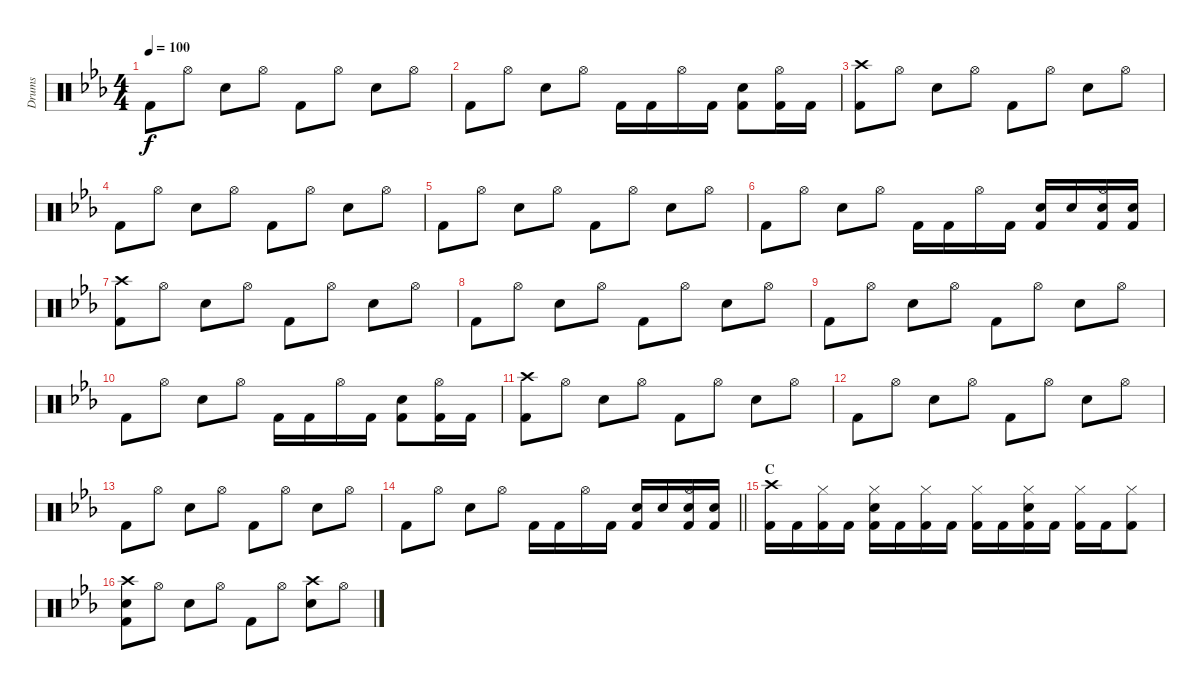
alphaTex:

\track ("Drums" "Drums") {instrument percussion}
\staff {score}
\articulation defaults
\ts (4 4)
\tempo 100
\clef neutral
\ks eb "Kick (hit) 2".8{dy f} "Hi-Hat (open)".8 "Snare (hit) 2".8 "Hi-Hat (open)".8 "Kick (hit) 2".8 "Hi-Hat (open)".8 "Snare (hit) 2".8 "Hi-Hat (open)".8
|
"Kick (hit) 2".8 "Hi-Hat (open)".8 "Snare (hit) 2".8 "Hi-Hat (open)".8 "Kick (hit) 2".16 "Kick (hit) 2".16 "Hi-Hat (open)".16 "Kick (hit) 2".16 ("Kick (hit) 2" "Snare (hit) 2").8 ("Kick (hit) 2" "Hi-Hat (open)").16 "Kick (hit) 2".16 |
("Kick (hit) 2" "Crash high (hit)").8 "Hi-Hat (open)".8 "Snare (hit) 2".8 "Hi-Hat (open)".8 "Kick (hit) 2".8 "Hi-Hat (open)".8 "Snare (hit) 2".8 "Hi-Hat (open)".8 |
"Kick (hit) 2".8 "Hi-Hat (open)".8 "Snare (hit) 2".8 "Hi-Hat (open)".8 "Kick (hit) 2".8 "Hi-Hat (open)".8 "Snare (hit) 2".8 "Hi-Hat (open)".8 |
"Kick (hit) 2".8 "Hi-Hat (open)".8 "Snare (hit) 2".8 "Hi-Hat (open)".8 "Kick (hit) 2".8 "Hi-Hat (open)".8 "Snare (hit) 2".8 "Hi-Hat (open)".8 |
"Kick (hit) 2".8 "Hi-Hat (open)".8 "Snare (hit) 2".8 "Hi-Hat (open)".8 "Kick (hit) 2".16 "Kick (hit) 2".16 "Hi-Hat (open)".16 "Kick (hit) 2".16 ("Kick (hit) 2" "Snare (hit) 2").16 "Snare (hit) 2".16 ("Snare (hit) 2" "Kick (hit) 2" "Hi-Hat (open)").16 ("Snare (hit) 2" "Kick (hit) 2").16 |
("Kick (hit) 2" "Crash high (hit)").8 "Hi-Hat (open)".8 "Snare (hit) 2".8 "Hi-Hat (open)".8 "Kick (hit) 2".8 "Hi-Hat (open)".8 "Snare (hit) 2".8 "Hi-Hat (open)".8 |
"Kick (hit) 2".8 "Hi-Hat (open)".8 "Snare (hit) 2".8 "Hi-Hat (open)".8 "Kick (hit) 2".8 "Hi-Hat (open)".8 "Snare (hit) 2".8 "Hi-Hat (open)".8 |
"Kick (hit) 2".8 "Hi-Hat (open)".8 "Snare (hit) 2".8 "Hi-Hat (open)".8 "Kick (hit) 2".8 "Hi-Hat (open)".8 "Snare (hit) 2".8 "Hi-Hat (open)".8 |
"Kick (hit) 2".8 "Hi-Hat (open)".8 "Snare (hit) 2".8 "Hi-Hat (open)".8 "Kick (hit) 2".16 "Kick (hit) 2".16 "Hi-Hat (open)".16 "Kick (hit) 2".16 ("Kick (hit) 2" "Snare (hit) 2").8 ("Kick (hit) 2" "Hi-Hat (open)").16 "Kick (hit) 2".16 |
("Kick (hit) 2" "Crash high (hit)").8 "Hi-Hat (open)".8 "Snare (hit) 2".8 "Hi-Hat (open)".8 "Kick (hit) 2".8 "Hi-Hat (open)".8 "Snare (hit) 2".8 "Hi-Hat (open)".8 |
"Kick (hit) 2".8 "Hi-Hat (open)".8 "Snare (hit) 2".8 "Hi-Hat (open)".8 "Kick (hit) 2".8 "Hi-Hat (open)".8 "Snare (hit) 2".8 "Hi-Hat (open)".8 |
"Kick (hit) 2".8 "Hi-Hat (open)".8 "Snare (hit) 2".8 "Hi-Hat (open)".8 "Kick (hit) 2".8 "Hi-Hat (open)".8 "Snare (hit) 2".8 "Hi-Hat (open)".8 |
\barLineRight lightlight "Kick (hit) 2".8 "Hi-Hat (open)".8 "Snare (hit) 2".8 "Hi-Hat (open)".8 "Kick (hit) 2".16 "Kick (hit) 2".16 "Hi-Hat (open)".16 "Kick (hit) 2".16
("Kick (hit) 2" "Snare (hit) 2").16 "Snare (hit) 2".16 ("Snare (hit) 2" "Kick (hit) 2" "Hi-Hat (open)").16 ("Snare (hit) 2" "Kick (hit) 2").16 |
\section ("" "C")
("Kick (hit) 2" "Crash high (hit)").16 "Kick (hit) 2".16 ("Kick (hit) 2" "Hi-Hat (closed)").16 "Kick (hit) 2".16 ("Kick (hit) 2" "Hi-Hat (closed)" "Snare (hit) 2").16 "Kick (hit) 2".16 ("Kick (hit) 2" "Hi-Hat (closed)").16 "Kick (hit) 2".16 ("Kick (hit) 2" "Hi-Hat (closed)").16 "Kick (hit) 2".16 ("Kick (hit) 2" "Hi-Hat (closed)" "Snare (hit) 2").16 "Kick (hit) 2".16 ("Kick (hit) 2" "Hi-Hat (closed)").16 "Kick (hit) 2".16 ("Kick (hit) 2" "Hi-Hat (closed)").8 |
("Kick (hit) 2" "Snare (hit) 2" "Crash high (hit)").8 "Hi-Hat (open)".8 "Snare (hit) 2".8 "Hi-Hat (open)".8 "Kick (hit) 2".8 "Hi-Hat (open)".8 ("Snare (hit) 2" "Crash high (hit)").8 "Hi-Hat (open)".8
